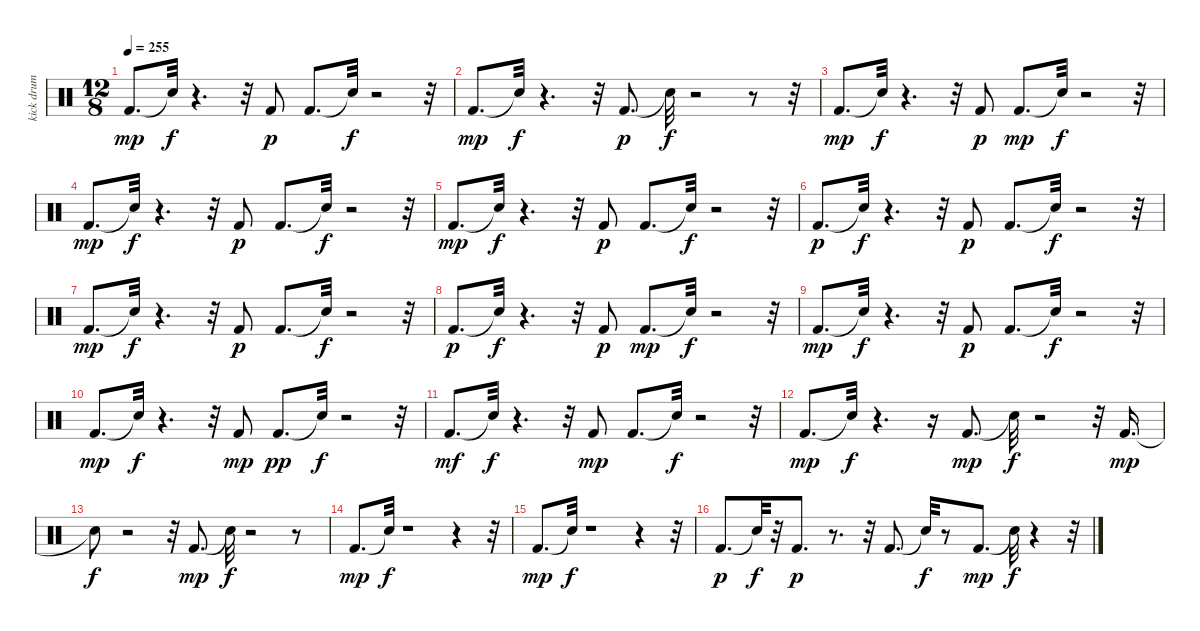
\track ("kick drum           " "kick drum ") {instrument percussion}
\staff {score}
\articulation defaults
\ts (12 8)
\tempo 255
\clef neutral
\ks c "Kick (hit) 2".8{d dy mp} "Snare (hit)"{t}.32{dy f}
r.4{d} r.32 "Kick (hit) 2".8{dy p} "Kick (hit) 2".8{d} "Snare (hit)"{t}.32{dy f} r.2 r.32 |
"Kick (hit) 2".8{d dy mp} "Snare (hit)"{t}.32{dy f} r.4{d} r.32 "Kick (hit) 2".8{d dy p} "Snare (hit)"{t}.32{dy f} r.2 r.8 r.32 |
"Kick (hit) 2".8{d dy mp} "Snare (hit)"{t}.32{dy f} r.4{d} r.32 "Kick (hit) 2".8{dy p} "Kick (hit) 2".8{d dy mp} "Snare (hit)"{t}.32{dy f} r.2 r.32 |
"Kick (hit) 2".8{d dy mp} "Snare (hit)"{t}.32{dy f} r.4{d} r.32 "Kick (hit) 2".8{dy p} "Kick (hit) 2".8{d} "Snare (hit)"{t}.32{dy f} r.2 r.32 |
"Kick (hit) 2".8{d dy mp} "Snare (hit)"{t}.32{dy f} r.4{d} r.32 "Kick (hit) 2".8{dy p} "Kick (hit) 2".8{d} "Snare (hit)"{t}.32{dy f} r.2 r.32 |
"Kick (hit) 2".8{d dy p} "Snare (hit)"{t}.32{dy f} r.4{d} r.32 "Kick (hit) 2".8{dy p} "Kick (hit) 2".8{d} "Snare (hit)"{t}.32{dy f} r.2 r.32 |
"Kick (hit) 2".8{d dy mp} "Snare (hit)"{t}.32{dy f} r.4{d} r.32 "Kick (hit) 2".8{dy p} "Kick (hit) 2".8{d} "Snare (hit)"{t}.32{dy f} r.2 r.32 |
"Kick (hit) 2".8{d dy p} "Snare (hit)"{t}.32{dy f} r.4{d} r.32 "Kick (hit) 2".8{dy p} "Kick (hit) 2".8{d dy mp} "Snare (hit)"{t}.32{dy f} r.2 r.32 |
"Kick (hit) 2".8{d dy mp} "Snare (hit)"{t}.32{dy f} r.4{d} r.32 "Kick (hit) 2".8{dy p} "Kick (hit) 2".8{d} "Snare (hit)"{t}.32{dy f} r.2 r.32 |
"Kick (hit) 2".8{d dy mp} "Snare (hit)"{t}.32{dy f} r.4{d} r.32 "Kick (hit) 2".8{dy mp} "Kick (hit) 2".8{d dy pp} "Snare (hit)"{t}.32{dy f} r.2 r.32 |
"Kick (hit) 2".8{d dy mf} "Snare (hit)"{t}.32{dy f} r.4{d} r.32 "Kick (hit) 2".8{dy mp} "Kick (hit) 2".8{d} "Snare (hit)"{t}.32{dy f} r.2 r.32 |
"Kick (hit) 2".8{d dy mp} "Snare (hit)"{t}.32{dy f} r.4{d} r.16 "Kick (hit) 2".8{d dy mp} "Snare (hit)"{t}.32{dy f} r.2 r.32 "Kick (hit) 2".16{d dy mp} |
"Snare (hit)"{t}.8{dy f} r.2 r.32 "Kick (hit) 2".8{d dy mp} "Snare (hit)"{t}.32{dy f} r.2 r.8 |
"Kick (hit) 2".8{d dy mp} "Snare (hit)"{t}.32{dy f} r.1 r.4 r.32 |
"Kick (hit) 2".8{d dy mp} "Snare (hit)"{t}.32{dy f} r.1 r.4 r.32 |
"Kick (hit) 2".8{d dy p} "Snare (hit)"{t}.32{dy f} r.32 "Kick (hit) 2".8{d dy p} r.8{d} r.32 "Kick (hit) 2".8{d} "Snare (hit)"{t}.32{dy f} r.8 "Kick (hit) 2".8{d dy mp} "Snare (hit)"{t}.32{dy f} r.4 r.32
